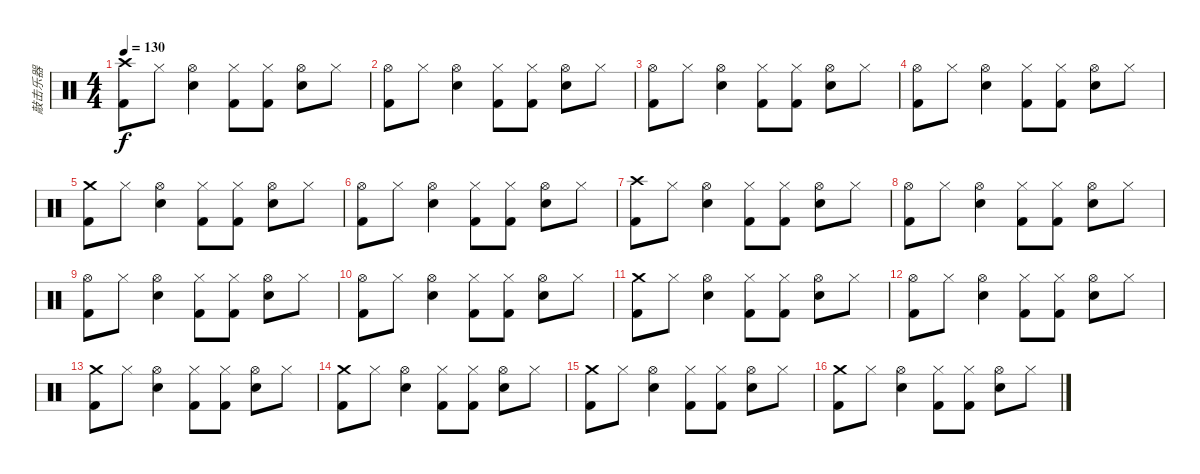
\track ("敲击乐器" "敲击乐器") {instrument percussion}
\staff {score}
\articulation defaults
\ts (4 4)
\tempo 130
\clef neutral
\ks c
("Crash high (hit)" "Kick (hit) 2").8{dy f} "Hi-Hat (closed)".8 ("Electric Snare (hit)" "Hi-Hat (open)").4 ("Hi-Hat (closed)" "Kick (hit) 2").8 ("Hi-Hat (closed)" "Kick (hit) 2").8 ("Hi-Hat (open)" "Electric Snare (hit)").8 "Hi-Hat (closed)".8 |
("Hi-Hat (open)" "Kick (hit) 2").8 "Hi-Hat (closed)".8 ("Electric Snare (hit)" "Hi-Hat (open)").4 ("Hi-Hat (closed)" "Kick (hit) 2").8 ("Hi-Hat (closed)" "Kick (hit) 2").8 ("Hi-Hat (open)" "Electric Snare (hit)").8 "Hi-Hat (closed)".8 |
("Hi-Hat (open)" "Kick (hit) 2").8 "Hi-Hat (closed)".8 ("Electric Snare (hit)" "Hi-Hat (open)").4 ("Hi-Hat (closed)" "Kick (hit) 2").8 ("Hi-Hat (closed)" "Kick (hit) 2").8 ("Hi-Hat (open)" "Electric Snare (hit)").8 "Hi-Hat (closed)".8 |
("Hi-Hat (open)" "Kick (hit) 2").8 "Hi-Hat (closed)".8 ("Electric Snare (hit)" "Hi-Hat (open)").4 ("Hi-Hat (closed)" "Kick (hit) 2").8 ("Hi-Hat (closed)" "Kick (hit) 2").8 ("Hi-Hat (open)" "Electric Snare (hit)").8 "Hi-Hat (closed)".8 |
("Crash medium (hit)" "Kick (hit) 2").8 "Hi-Hat (closed)".8 ("Electric Snare (hit)" "Hi-Hat (open)").4 ("Hi-Hat (closed)" "Kick (hit) 2").8 ("Hi-Hat (closed)" "Kick (hit) 2").8 ("Hi-Hat (open)" "Electric Snare (hit)").8 "Hi-Hat (closed)".8 |
("Hi-Hat (open)" "Kick (hit) 2").8 "Hi-Hat (closed)".8 ("Electric Snare (hit)" "Hi-Hat (open)").4 ("Hi-Hat (closed)" "Kick (hit) 2").8 ("Hi-Hat (closed)" "Kick (hit) 2").8 ("Hi-Hat (open)" "Electric Snare (hit)").8 "Hi-Hat (closed)".8 |
("Crash high (hit)" "Kick (hit) 2").8 "Hi-Hat (closed)".8 ("Electric Snare (hit)" "Hi-Hat (open)").4 ("Hi-Hat (closed)" "Kick (hit) 2").8 ("Hi-Hat (closed)" "Kick (hit) 2").8 ("Hi-Hat (open)" "Electric Snare (hit)").8 "Hi-Hat (closed)".8 |
("Hi-Hat (open)" "Kick (hit) 2").8 "Hi-Hat (closed)".8 ("Electric Snare (hit)" "Hi-Hat (open)").4 ("Hi-Hat (closed)" "Kick (hit) 2").8 ("Hi-Hat (closed)" "Kick (hit) 2").8 ("Hi-Hat (open)" "Electric Snare (hit)").8 "Hi-Hat (closed)".8 |
("Hi-Hat (open)" "Kick (hit) 2").8 "Hi-Hat (closed)".8 ("Electric Snare (hit)" "Hi-Hat (open)").4 ("Hi-Hat (closed)" "Kick (hit) 2").8 ("Hi-Hat (closed)" "Kick (hit) 2").8 ("Hi-Hat (open)" "Electric Snare (hit)").8 "Hi-Hat (closed)".8 |
("Hi-Hat (open)" "Kick (hit) 2").8 "Hi-Hat (closed)".8 ("Electric Snare (hit)" "Hi-Hat (open)").4 ("Hi-Hat (closed)" "Kick (hit) 2").8 ("Hi-Hat (closed)" "Kick (hit) 2").8 ("Hi-Hat (open)" "Electric Snare (hit)").8 "Hi-Hat (closed)".8 |
("Crash medium (hit)" "Kick (hit) 2").8 "Hi-Hat (closed)".8 ("Electric Snare (hit)" "Hi-Hat (open)").4 ("Hi-Hat (closed)" "Kick (hit) 2").8 ("Hi-Hat (closed)" "Kick (hit) 2").8 ("Hi-Hat (open)" "Electric Snare (hit)").8 "Hi-Hat (closed)".8 |
("Hi-Hat (open)" "Kick (hit) 2").8 "Hi-Hat (closed)".8 ("Electric Snare (hit)" "Hi-Hat (open)").4 ("Hi-Hat (closed)" "Kick (hit) 2").8 ("Hi-Hat (closed)" "Kick (hit) 2").8 ("Hi-Hat (open)" "Electric Snare (hit)").8 "Hi-Hat (closed)".8 |
("Crash medium (hit)" "Kick (hit) 2").8 "Hi-Hat (closed)".8 ("Electric Snare (hit)" "Hi-Hat (open)").4 ("Hi-Hat (closed)" "Kick (hit) 2").8 ("Hi-Hat (closed)" "Kick (hit) 2").8 ("Hi-Hat (open)" "Electric Snare (hit)").8 "Hi-Hat (closed)".8 |
("Crash medium (hit)" "Kick (hit) 2").8 "Hi-Hat (closed)".8 ("Electric Snare (hit)" "Hi-Hat (open)").4 ("Hi-Hat (closed)" "Kick (hit) 2").8 ("Hi-Hat (closed)" "Kick (hit) 2").8 ("Hi-Hat (open)" "Electric Snare (hit)").8 "Hi-Hat (closed)".8 |
("Crash medium (hit)" "Kick (hit) 2").8 "Hi-Hat (closed)".8 ("Electric Snare (hit)" "Hi-Hat (open)").4 ("Hi-Hat (closed)" "Kick (hit) 2").8 ("Hi-Hat (closed)" "Kick (hit) 2").8 ("Hi-Hat (open)" "Electric Snare (hit)").8 "Hi-Hat (closed)".8 |
("Crash medium (hit)" "Kick (hit) 2").8 "Hi-Hat (closed)".8 ("Electric Snare (hit)" "Hi-Hat (open)").4 ("Hi-Hat (closed)" "Kick (hit) 2").8 ("Hi-Hat (closed)" "Kick (hit) 2").8 ("Hi-Hat (open)" "Electric Snare (hit)").8 "Hi-Hat (closed)".8
